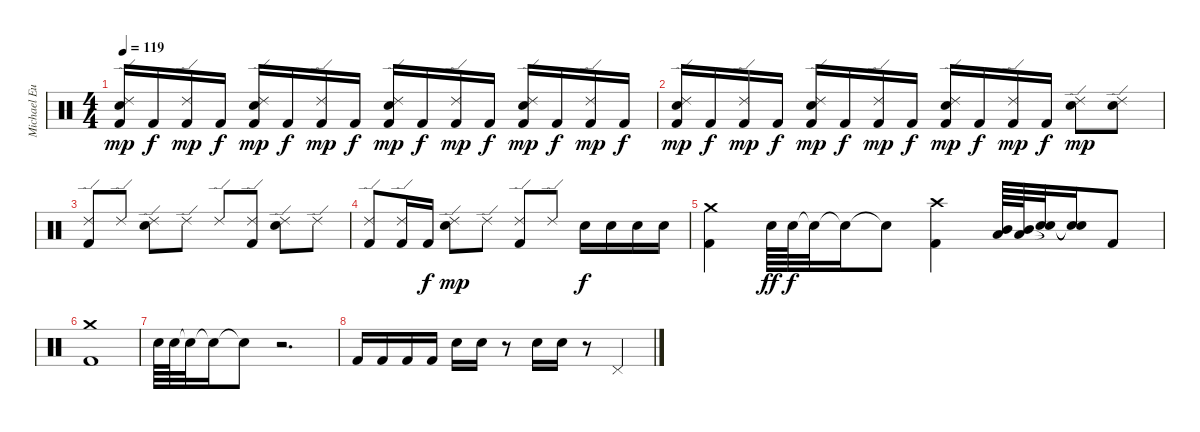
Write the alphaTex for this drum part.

\track ("Michael Eurich" "Michael Eu") {instrument percussion}
\staff {score}
\articulation defaults
\ts (4 4)
\tempo 119
\clef neutral
\ks c
("Kick (hit) 2" "Ride (edge) 2" "Snare (hit) 2").16{dy mp} "Kick (hit) 2".16{dy f} ("Kick (hit) 2" "Ride (edge) 2").16{dy mp} "Kick (hit) 2".16{dy f} ("Kick (hit) 2" "Ride (edge) 2" "Snare (hit) 2").16{dy mp} "Kick (hit) 2".16{dy f} ("Kick (hit) 2" "Ride (edge) 2").16{dy mp} "Kick (hit) 2".16{dy f} ("Kick (hit) 2" "Ride (edge) 2" "Snare (hit) 2").16{dy mp} "Kick (hit) 2".16{dy f} ("Kick (hit) 2" "Ride (edge) 2").16{dy mp} "Kick (hit) 2".16{dy f} ("Kick (hit) 2" "Ride (edge) 2" "Snare (hit) 2").16{dy mp} "Kick (hit) 2".16{dy f} ("Kick (hit) 2" "Ride (edge) 2").16{dy mp} "Kick (hit) 2".16{dy f} |
("Kick (hit) 2" "Ride (edge) 2" "Snare (hit) 2").16{dy mp} "Kick (hit) 2".16{dy f} ("Kick (hit) 2" "Ride (edge) 2").16{dy mp} "Kick (hit) 2".16{dy f} ("Kick (hit) 2" "Ride (edge) 2" "Snare (hit) 2").16{dy mp} "Kick (hit) 2".16{dy f} ("Kick (hit) 2" "Ride (edge) 2").16{dy mp} "Kick (hit) 2".16{dy f} ("Kick (hit) 2" "Ride (edge) 2" "Snare (hit) 2").16{dy mp} "Kick (hit) 2".16{dy f} ("Kick (hit) 2" "Ride (edge) 2").16{dy mp} "Kick (hit) 2".16{dy f} ("Ride (edge) 2" "Snare (hit) 2").8{dy mp} ("Ride (edge) 2" "Snare (hit) 2").8 |
("Kick (hit) 2" "Ride (edge) 2").8 "Ride (edge) 2".8 ("Ride (edge) 2" "Snare (hit) 2").8 "Ride (edge) 2".8 "Ride (edge) 2".8 ("Kick (hit) 2" "Ride (edge) 2").8 ("Ride (edge) 2" "Snare (hit) 2").8 "Ride (edge) 2".8 |
("Kick (hit) 2" "Ride (edge) 2").8 ("Kick (hit) 2" "Ride (edge) 2").16 "Kick (hit) 2".16{dy f} ("Ride (edge) 2" "Snare (hit) 2").8{dy mp} "Ride (edge) 2".8 ("Kick (hit) 2" "Ride (edge) 2").8 "Ride (edge) 2".8 "Snare (hit) 2".16{dy f} "Snare (hit) 2".16 "Snare (hit) 2".16 "Snare (hit) 2".16 |
("Kick (hit) 2" "Crash medium (hit)").4 "Snare (hit) 2".64{dy ff} "Snare (hit) 2".64{dy f} "Snare (hit)"{t}.32 "Snare (hit)"{t}.16 "Snare (hit)"{t}.8 ("Kick (hit) 2" "Crash high (hit)").4 ("Low Tom (hit)" "Mid Tom (hit)").64 ("Low Tom (hit)" "Mid Tom (hit)").64 ("Snare (hit)"{t} "Snare (hit)"{t}).32 ("Snare (hit)"{t} "Snare (hit)"{t}).16 "Kick (hit) 2".8 |
("Kick (hit) 2" "Crash medium (hit)").1 |
"Snare (hit) 2".64 "Snare (hit) 2".64 "Snare (hit)"{t}.32 "Snare (hit)"{t}.16 "Snare (hit)"{t}.8 r.2{d} |
"Kick (hit) 2".16 "Kick (hit) 2".16 "Kick (hit) 2".16 "Kick (hit) 2".16 "Snare (hit) 2".16 "Snare (hit) 2".16 r.8 "Snare (hit) 2".16 "Snare (hit) 2".16 r.8 "Pedal Hi-Hat (hit)".4
